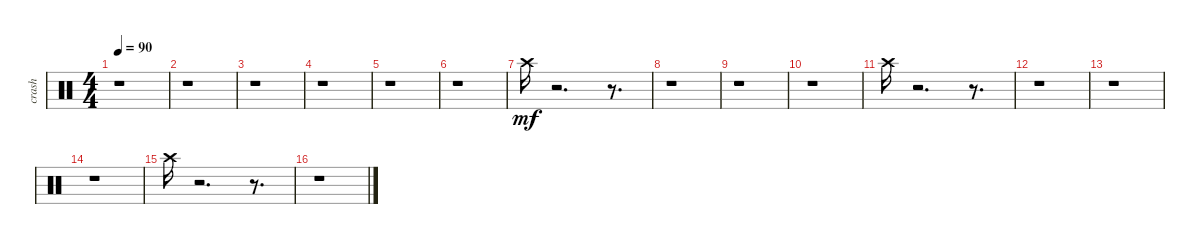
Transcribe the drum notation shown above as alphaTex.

\track ("crash" "crash") {instrument percussion}
\staff {score}
\articulation defaults
\ts (4 4)
\tempo 90
\clef neutral
\ks c
r.1{dy mf} |
r.1 |
r.1 |
r.1 |
r.1 |
r.1 |
"Crash high (hit)".16 r.2{d} r.8{d} |
r.1 |
r.1 |
r.1 |
"Crash high (hit)".16 r.2{d} r.8{d} |
r.1 |
r.1 |
r.1 |
"Crash high (hit)".16 r.2{d} r.8{d} |
r.1
